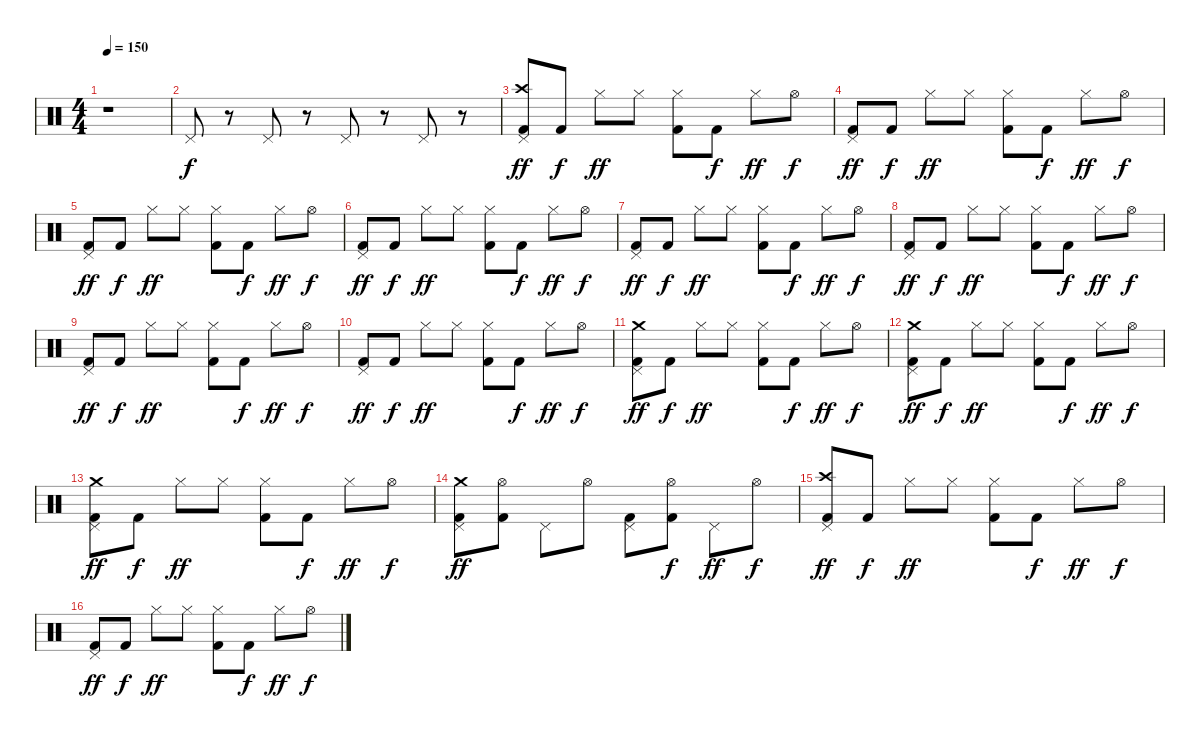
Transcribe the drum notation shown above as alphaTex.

\track "" {instrument percussion}
\staff {score}
\articulation defaults
\ts (4 4)
\tempo 150
\clef neutral
\ks c
r.1{dy f} |
"Pedal Hi-Hat (hit)".8 r.8 "Pedal Hi-Hat (hit)".8 r.8 "Pedal Hi-Hat (hit)".8 r.8 "Pedal Hi-Hat (hit)".8 r.8 |
("Crash high (hit)" "Pedal Hi-Hat (hit)" "Kick (hit) 2").8{dy ff} "Kick (hit) 2".8{dy f} "Hi-Hat (closed)".8{dy ff} "Hi-Hat (closed)".8 ("Hi-Hat (closed)" "Kick (hit) 2").8 "Kick (hit) 2".8{dy f} "Hi-Hat (closed)".8{dy ff} "Hi-Hat (open)".8{dy f} |
("Pedal Hi-Hat (hit)" "Kick (hit) 2").8{dy ff} "Kick (hit) 2".8{dy f} "Hi-Hat (closed)".8{dy ff} "Hi-Hat (closed)".8 ("Hi-Hat (closed)" "Kick (hit) 2").8 "Kick (hit) 2".8{dy f} "Hi-Hat (closed)".8{dy ff} "Hi-Hat (open)".8{dy f} |
("Pedal Hi-Hat (hit)" "Kick (hit) 2").8{dy ff} "Kick (hit) 2".8{dy f} "Hi-Hat (closed)".8{dy ff} "Hi-Hat (closed)".8 ("Hi-Hat (closed)" "Kick (hit) 2").8 "Kick (hit) 2".8{dy f} "Hi-Hat (closed)".8{dy ff} "Hi-Hat (open)".8{dy f} |
("Pedal Hi-Hat (hit)" "Kick (hit) 2").8{dy ff} "Kick (hit) 2".8{dy f} "Hi-Hat (closed)".8{dy ff} "Hi-Hat (closed)".8 ("Hi-Hat (closed)" "Kick (hit) 2").8 "Kick (hit) 2".8{dy f} "Hi-Hat (closed)".8{dy ff} "Hi-Hat (open)".8{dy f} |
("Pedal Hi-Hat (hit)" "Kick (hit) 2").8{dy ff} "Kick (hit) 2".8{dy f} "Hi-Hat (closed)".8{dy ff} "Hi-Hat (closed)".8 ("Hi-Hat (closed)" "Kick (hit) 2").8 "Kick (hit) 2".8{dy f} "Hi-Hat (closed)".8{dy ff} "Hi-Hat (open)".8{dy f} |
("Pedal Hi-Hat (hit)" "Kick (hit) 2").8{dy ff} "Kick (hit) 2".8{dy f} "Hi-Hat (closed)".8{dy ff} "Hi-Hat (closed)".8 ("Hi-Hat (closed)" "Kick (hit) 2").8 "Kick (hit) 2".8{dy f} "Hi-Hat (closed)".8{dy ff} "Hi-Hat (open)".8{dy f} |
("Pedal Hi-Hat (hit)" "Kick (hit) 2").8{dy ff} "Kick (hit) 2".8{dy f} "Hi-Hat (closed)".8{dy ff} "Hi-Hat (closed)".8 ("Hi-Hat (closed)" "Kick (hit) 2").8 "Kick (hit) 2".8{dy f} "Hi-Hat (closed)".8{dy ff} "Hi-Hat (open)".8{dy f} |
("Pedal Hi-Hat (hit)" "Kick (hit) 2").8{dy ff} "Kick (hit) 2".8{dy f} "Hi-Hat (closed)".8{dy ff} "Hi-Hat (closed)".8 ("Hi-Hat (closed)" "Kick (hit) 2").8 "Kick (hit) 2".8{dy f} "Hi-Hat (closed)".8{dy ff} "Hi-Hat (open)".8{dy f} |
("Crash medium (hit)" "Pedal Hi-Hat (hit)" "Kick (hit) 2").8{dy ff} "Kick (hit) 2".8{dy f} "Hi-Hat (closed)".8{dy ff} "Hi-Hat (closed)".8 ("Hi-Hat (closed)" "Kick (hit) 2").8 "Kick (hit) 2".8{dy f} "Hi-Hat (closed)".8{dy ff} "Hi-Hat (open)".8{dy f} |
("Crash medium (hit)" "Pedal Hi-Hat (hit)" "Kick (hit) 2").8{dy ff} "Kick (hit) 2".8{dy f} "Hi-Hat (closed)".8{dy ff} "Hi-Hat (closed)".8 ("Hi-Hat (closed)" "Kick (hit) 2").8 "Kick (hit) 2".8{dy f} "Hi-Hat (closed)".8{dy ff} "Hi-Hat (open)".8{dy f} |
("Crash medium (hit)" "Pedal Hi-Hat (hit)" "Kick (hit) 2").8{dy ff} "Kick (hit) 2".8{dy f} "Hi-Hat (closed)".8{dy ff} "Hi-Hat (closed)".8 ("Hi-Hat (closed)" "Kick (hit) 2").8 "Kick (hit) 2".8{dy f} "Hi-Hat (closed)".8{dy ff} "Hi-Hat (open)".8{dy f} |
("Crash medium (hit)" "Pedal Hi-Hat (hit)" "Kick (hit) 2").8{dy ff} ("Hi-Hat (open)" "Kick (hit) 2").8 "Pedal Hi-Hat (hit)".8 "Hi-Hat (open)".8 ("Pedal Hi-Hat (hit)" "Kick (hit) 2").8 ("Hi-Hat (open)" "Kick (hit) 2").8{dy f} "Pedal Hi-Hat (hit)".8{dy ff} "Hi-Hat (open)".8{dy f} |
("Crash high (hit)" "Pedal Hi-Hat (hit)" "Kick (hit) 2").8{dy ff} "Kick (hit) 2".8{dy f} "Hi-Hat (closed)".8{dy ff} "Hi-Hat (closed)".8 ("Hi-Hat (closed)" "Kick (hit) 2").8 "Kick (hit) 2".8{dy f} "Hi-Hat (closed)".8{dy ff} "Hi-Hat (open)".8{dy f} |
("Pedal Hi-Hat (hit)" "Kick (hit) 2").8{dy ff} "Kick (hit) 2".8{dy f} "Hi-Hat (closed)".8{dy ff} "Hi-Hat (closed)".8 ("Hi-Hat (closed)" "Kick (hit) 2").8 "Kick (hit) 2".8{dy f} "Hi-Hat (closed)".8{dy ff} "Hi-Hat (open)".8{dy f}
